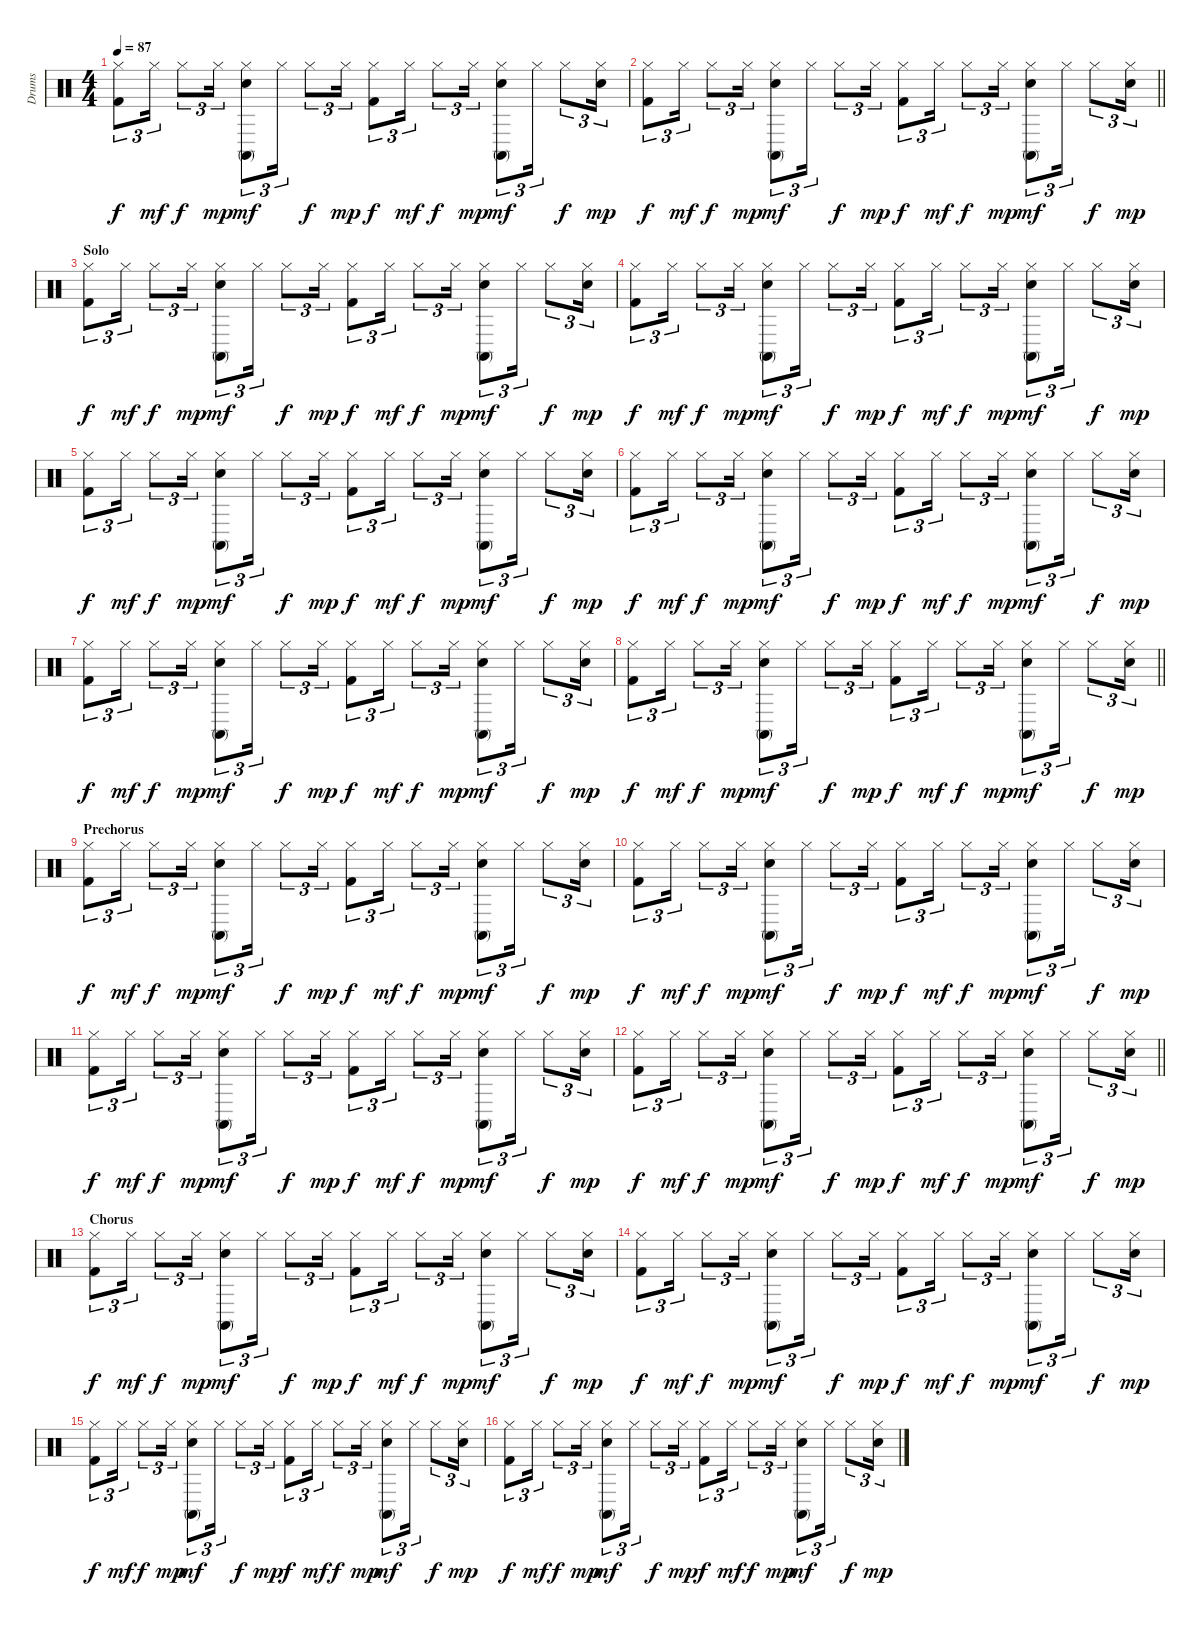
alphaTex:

\track ("Drums" "Drums") {instrument percussion}
\staff {score}
\articulation defaults
\ts (4 4)
\tempo 87
\clef neutral
\ks c
("Hi-Hat (closed)" "Kick (hit) 2").8{tu (3 2) dy f} "Hi-Hat (closed)".16{tu (3 2) dy mf} "Hi-Hat (closed)".8{tu (3 2) dy f} "Hi-Hat (closed)".16{tu (3 2) dy mp} ("Conga high (mute)" "Hi-Hat (closed)" "Electric Snare (hit)").8{tu (3 2) dy mf} "Hi-Hat (closed)".16{tu (3 2)} "Hi-Hat (closed)".8{tu (3 2) dy f} "Hi-Hat (closed)".16{tu (3 2) dy mp} ("Hi-Hat (closed)" "Kick (hit) 2").8{tu (3 2) dy f} "Hi-Hat (closed)".16{tu (3 2) dy mf} "Hi-Hat (closed)".8{tu (3 2) dy f} "Hi-Hat (closed)".16{tu (3 2) dy mp} ("Conga high (mute)" "Hi-Hat (closed)" "Electric Snare (hit)").8{tu (3 2) dy mf} "Hi-Hat (closed)".16{tu (3 2)} "Hi-Hat (closed)".8{tu (3 2) dy f} ("Hi-Hat (closed)" "Electric Snare (hit)").16{tu (3 2) dy mp} |
\barLineRight lightlight
("Hi-Hat (closed)" "Kick (hit) 2").8{tu (3 2) dy f} "Hi-Hat (closed)".16{tu (3 2) dy mf} "Hi-Hat (closed)".8{tu (3 2) dy f} "Hi-Hat (closed)".16{tu (3 2) dy mp} ("Conga high (mute)" "Hi-Hat (closed)" "Electric Snare (hit)").8{tu (3 2) dy mf} "Hi-Hat (closed)".16{tu (3 2)} "Hi-Hat (closed)".8{tu (3 2) dy f} "Hi-Hat (closed)".16{tu (3 2) dy mp} ("Hi-Hat (closed)" "Kick (hit) 2").8{tu (3 2) dy f} "Hi-Hat (closed)".16{tu (3 2) dy mf} "Hi-Hat (closed)".8{tu (3 2) dy f} "Hi-Hat (closed)".16{tu (3 2) dy mp} ("Conga high (mute)" "Hi-Hat (closed)" "Electric Snare (hit)").8{tu (3 2) dy mf} "Hi-Hat (closed)".16{tu (3 2)} "Hi-Hat (closed)".8{tu (3 2) dy f} ("Hi-Hat (closed)" "Electric Snare (hit)").16{tu (3 2) dy mp} |
\section ("" "Solo")
("Hi-Hat (closed)" "Kick (hit) 2").8{tu (3 2) dy f} "Hi-Hat (closed)".16{tu (3 2) dy mf} "Hi-Hat (closed)".8{tu (3 2) dy f} "Hi-Hat (closed)".16{tu (3 2) dy mp} ("Conga high (mute)" "Hi-Hat (closed)" "Electric Snare (hit)").8{tu (3 2) dy mf} "Hi-Hat (closed)".16{tu (3 2)} "Hi-Hat (closed)".8{tu (3 2) dy f} "Hi-Hat (closed)".16{tu (3 2) dy mp} ("Hi-Hat (closed)" "Kick (hit) 2").8{tu (3 2) dy f} "Hi-Hat (closed)".16{tu (3 2) dy mf} "Hi-Hat (closed)".8{tu (3 2) dy f} "Hi-Hat (closed)".16{tu (3 2) dy mp} ("Conga high (mute)" "Hi-Hat (closed)" "Electric Snare (hit)").8{tu (3 2) dy mf} "Hi-Hat (closed)".16{tu (3 2)} "Hi-Hat (closed)".8{tu (3 2) dy f} ("Hi-Hat (closed)" "Electric Snare (hit)").16{tu (3 2) dy mp} |
("Hi-Hat (closed)" "Kick (hit) 2").8{tu (3 2) dy f} "Hi-Hat (closed)".16{tu (3 2) dy mf} "Hi-Hat (closed)".8{tu (3 2) dy f} "Hi-Hat (closed)".16{tu (3 2) dy mp} ("Conga high (mute)" "Hi-Hat (closed)" "Electric Snare (hit)").8{tu (3 2) dy mf} "Hi-Hat (closed)".16{tu (3 2)} "Hi-Hat (closed)".8{tu (3 2) dy f} "Hi-Hat (closed)".16{tu (3 2) dy mp} ("Hi-Hat (closed)" "Kick (hit) 2").8{tu (3 2) dy f} "Hi-Hat (closed)".16{tu (3 2) dy mf} "Hi-Hat (closed)".8{tu (3 2) dy f} "Hi-Hat (closed)".16{tu (3 2) dy mp} ("Conga high (mute)" "Hi-Hat (closed)" "Electric Snare (hit)").8{tu (3 2) dy mf} "Hi-Hat (closed)".16{tu (3 2)} "Hi-Hat (closed)".8{tu (3 2) dy f} ("Hi-Hat (closed)" "Electric Snare (hit)").16{tu (3 2) dy mp} |
("Hi-Hat (closed)" "Kick (hit) 2").8{tu (3 2) dy f} "Hi-Hat (closed)".16{tu (3 2) dy mf} "Hi-Hat (closed)".8{tu (3 2) dy f} "Hi-Hat (closed)".16{tu (3 2) dy mp} ("Conga high (mute)" "Hi-Hat (closed)" "Electric Snare (hit)").8{tu (3 2) dy mf} "Hi-Hat (closed)".16{tu (3 2)} "Hi-Hat (closed)".8{tu (3 2) dy f} "Hi-Hat (closed)".16{tu (3 2) dy mp} ("Hi-Hat (closed)" "Kick (hit) 2").8{tu (3 2) dy f} "Hi-Hat (closed)".16{tu (3 2) dy mf} "Hi-Hat (closed)".8{tu (3 2) dy f} "Hi-Hat (closed)".16{tu (3 2) dy mp} ("Conga high (mute)" "Hi-Hat (closed)" "Electric Snare (hit)").8{tu (3 2) dy mf} "Hi-Hat (closed)".16{tu (3 2)} "Hi-Hat (closed)".8{tu (3 2) dy f} ("Hi-Hat (closed)" "Electric Snare (hit)").16{tu (3 2) dy mp} |
("Hi-Hat (closed)" "Kick (hit) 2").8{tu (3 2) dy f} "Hi-Hat (closed)".16{tu (3 2) dy mf} "Hi-Hat (closed)".8{tu (3 2) dy f} "Hi-Hat (closed)".16{tu (3 2) dy mp} ("Conga high (mute)" "Hi-Hat (closed)" "Electric Snare (hit)").8{tu (3 2) dy mf} "Hi-Hat (closed)".16{tu (3 2)} "Hi-Hat (closed)".8{tu (3 2) dy f} "Hi-Hat (closed)".16{tu (3 2) dy mp} ("Hi-Hat (closed)" "Kick (hit) 2").8{tu (3 2) dy f} "Hi-Hat (closed)".16{tu (3 2) dy mf} "Hi-Hat (closed)".8{tu (3 2) dy f} "Hi-Hat (closed)".16{tu (3 2) dy mp} ("Conga high (mute)" "Hi-Hat (closed)" "Electric Snare (hit)").8{tu (3 2) dy mf} "Hi-Hat (closed)".16{tu (3 2)} "Hi-Hat (closed)".8{tu (3 2) dy f} ("Hi-Hat (closed)" "Electric Snare (hit)").16{tu (3 2) dy mp} |
("Hi-Hat (closed)" "Kick (hit) 2").8{tu (3 2) dy f} "Hi-Hat (closed)".16{tu (3 2) dy mf} "Hi-Hat (closed)".8{tu (3 2) dy f} "Hi-Hat (closed)".16{tu (3 2) dy mp} ("Conga high (mute)" "Hi-Hat (closed)" "Electric Snare (hit)").8{tu (3 2) dy mf} "Hi-Hat (closed)".16{tu (3 2)} "Hi-Hat (closed)".8{tu (3 2) dy f} "Hi-Hat (closed)".16{tu (3 2) dy mp} ("Hi-Hat (closed)" "Kick (hit) 2").8{tu (3 2) dy f} "Hi-Hat (closed)".16{tu (3 2) dy mf} "Hi-Hat (closed)".8{tu (3 2) dy f} "Hi-Hat (closed)".16{tu (3 2) dy mp} ("Conga high (mute)" "Hi-Hat (closed)" "Electric Snare (hit)").8{tu (3 2) dy mf} "Hi-Hat (closed)".16{tu (3 2)} "Hi-Hat (closed)".8{tu (3 2) dy f} ("Hi-Hat (closed)" "Electric Snare (hit)").16{tu (3 2) dy mp} |
\barLineRight lightlight
("Hi-Hat (closed)" "Kick (hit) 2").8{tu (3 2) dy f} "Hi-Hat (closed)".16{tu (3 2) dy mf} "Hi-Hat (closed)".8{tu (3 2) dy f} "Hi-Hat (closed)".16{tu (3 2) dy mp} ("Conga high (mute)" "Hi-Hat (closed)" "Electric Snare (hit)").8{tu (3 2) dy mf} "Hi-Hat (closed)".16{tu (3 2)} "Hi-Hat (closed)".8{tu (3 2) dy f} "Hi-Hat (closed)".16{tu (3 2) dy mp} ("Hi-Hat (closed)" "Kick (hit) 2").8{tu (3 2) dy f} "Hi-Hat (closed)".16{tu (3 2) dy mf} "Hi-Hat (closed)".8{tu (3 2) dy f} "Hi-Hat (closed)".16{tu (3 2) dy mp} ("Conga high (mute)" "Hi-Hat (closed)" "Electric Snare (hit)").8{tu (3 2) dy mf} "Hi-Hat (closed)".16{tu (3 2)} "Hi-Hat (closed)".8{tu (3 2) dy f} ("Hi-Hat (closed)" "Electric Snare (hit)").16{tu (3 2) dy mp} |
\section ("" "Prechorus")
("Hi-Hat (closed)" "Kick (hit) 2").8{tu (3 2) dy f} "Hi-Hat (closed)".16{tu (3 2) dy mf} "Hi-Hat (closed)".8{tu (3 2) dy f} "Hi-Hat (closed)".16{tu (3 2) dy mp} ("Conga high (mute)" "Hi-Hat (closed)" "Electric Snare (hit)").8{tu (3 2) dy mf} "Hi-Hat (closed)".16{tu (3 2)} "Hi-Hat (closed)".8{tu (3 2) dy f} "Hi-Hat (closed)".16{tu (3 2) dy mp} ("Hi-Hat (closed)" "Kick (hit) 2").8{tu (3 2) dy f} "Hi-Hat (closed)".16{tu (3 2) dy mf} "Hi-Hat (closed)".8{tu (3 2) dy f} "Hi-Hat (closed)".16{tu (3 2) dy mp} ("Conga high (mute)" "Hi-Hat (closed)" "Electric Snare (hit)").8{tu (3 2) dy mf} "Hi-Hat (closed)".16{tu (3 2)} "Hi-Hat (closed)".8{tu (3 2) dy f} ("Hi-Hat (closed)" "Electric Snare (hit)").16{tu (3 2) dy mp} |
("Hi-Hat (closed)" "Kick (hit) 2").8{tu (3 2) dy f} "Hi-Hat (closed)".16{tu (3 2) dy mf} "Hi-Hat (closed)".8{tu (3 2) dy f} "Hi-Hat (closed)".16{tu (3 2) dy mp} ("Conga high (mute)" "Hi-Hat (closed)" "Electric Snare (hit)").8{tu (3 2) dy mf} "Hi-Hat (closed)".16{tu (3 2)} "Hi-Hat (closed)".8{tu (3 2) dy f} "Hi-Hat (closed)".16{tu (3 2) dy mp} ("Hi-Hat (closed)" "Kick (hit) 2").8{tu (3 2) dy f} "Hi-Hat (closed)".16{tu (3 2) dy mf} "Hi-Hat (closed)".8{tu (3 2) dy f} "Hi-Hat (closed)".16{tu (3 2) dy mp} ("Conga high (mute)" "Hi-Hat (closed)" "Electric Snare (hit)").8{tu (3 2) dy mf} "Hi-Hat (closed)".16{tu (3 2)} "Hi-Hat (closed)".8{tu (3 2) dy f} ("Hi-Hat (closed)" "Electric Snare (hit)").16{tu (3 2) dy mp} |
("Hi-Hat (closed)" "Kick (hit) 2").8{tu (3 2) dy f} "Hi-Hat (closed)".16{tu (3 2) dy mf} "Hi-Hat (closed)".8{tu (3 2) dy f} "Hi-Hat (closed)".16{tu (3 2) dy mp} ("Conga high (mute)" "Hi-Hat (closed)" "Electric Snare (hit)").8{tu (3 2) dy mf} "Hi-Hat (closed)".16{tu (3 2)} "Hi-Hat (closed)".8{tu (3 2) dy f} "Hi-Hat (closed)".16{tu (3 2) dy mp} ("Hi-Hat (closed)" "Kick (hit) 2").8{tu (3 2) dy f} "Hi-Hat (closed)".16{tu (3 2) dy mf} "Hi-Hat (closed)".8{tu (3 2) dy f} "Hi-Hat (closed)".16{tu (3 2) dy mp} ("Conga high (mute)" "Hi-Hat (closed)" "Electric Snare (hit)").8{tu (3 2) dy mf} "Hi-Hat (closed)".16{tu (3 2)} "Hi-Hat (closed)".8{tu (3 2) dy f} ("Hi-Hat (closed)" "Electric Snare (hit)").16{tu (3 2) dy mp} |
\barLineRight lightlight
("Hi-Hat (closed)" "Kick (hit) 2").8{tu (3 2) dy f} "Hi-Hat (closed)".16{tu (3 2) dy mf} "Hi-Hat (closed)".8{tu (3 2) dy f} "Hi-Hat (closed)".16{tu (3 2) dy mp} ("Conga high (mute)" "Hi-Hat (closed)" "Electric Snare (hit)").8{tu (3 2) dy mf} "Hi-Hat (closed)".16{tu (3 2)} "Hi-Hat (closed)".8{tu (3 2) dy f} "Hi-Hat (closed)".16{tu (3 2) dy mp} ("Hi-Hat (closed)" "Kick (hit) 2").8{tu (3 2) dy f} "Hi-Hat (closed)".16{tu (3 2) dy mf} "Hi-Hat (closed)".8{tu (3 2) dy f} "Hi-Hat (closed)".16{tu (3 2) dy mp} ("Conga high (mute)" "Hi-Hat (closed)" "Electric Snare (hit)").8{tu (3 2) dy mf} "Hi-Hat (closed)".16{tu (3 2)} "Hi-Hat (closed)".8{tu (3 2) dy f} ("Hi-Hat (closed)" "Electric Snare (hit)").16{tu (3 2) dy mp} |
\section ("" "Chorus")
("Hi-Hat (closed)" "Kick (hit) 2").8{tu (3 2) dy f} "Hi-Hat (closed)".16{tu (3 2) dy mf} "Hi-Hat (closed)".8{tu (3 2) dy f} "Hi-Hat (closed)".16{tu (3 2) dy mp} ("Conga high (mute)" "Hi-Hat (closed)" "Electric Snare (hit)").8{tu (3 2) dy mf} "Hi-Hat (closed)".16{tu (3 2)} "Hi-Hat (closed)".8{tu (3 2) dy f} "Hi-Hat (closed)".16{tu (3 2) dy mp} ("Hi-Hat (closed)" "Kick (hit) 2").8{tu (3 2) dy f} "Hi-Hat (closed)".16{tu (3 2) dy mf} "Hi-Hat (closed)".8{tu (3 2) dy f} "Hi-Hat (closed)".16{tu (3 2) dy mp} ("Conga high (mute)" "Hi-Hat (closed)" "Electric Snare (hit)").8{tu (3 2) dy mf} "Hi-Hat (closed)".16{tu (3 2)} "Hi-Hat (closed)".8{tu (3 2) dy f} ("Hi-Hat (closed)" "Electric Snare (hit)").16{tu (3 2) dy mp} |
("Hi-Hat (closed)" "Kick (hit) 2").8{tu (3 2) dy f} "Hi-Hat (closed)".16{tu (3 2) dy mf} "Hi-Hat (closed)".8{tu (3 2) dy f} "Hi-Hat (closed)".16{tu (3 2) dy mp} ("Conga high (mute)" "Hi-Hat (closed)" "Electric Snare (hit)").8{tu (3 2) dy mf} "Hi-Hat (closed)".16{tu (3 2)} "Hi-Hat (closed)".8{tu (3 2) dy f} "Hi-Hat (closed)".16{tu (3 2) dy mp} ("Hi-Hat (closed)" "Kick (hit) 2").8{tu (3 2) dy f} "Hi-Hat (closed)".16{tu (3 2) dy mf} "Hi-Hat (closed)".8{tu (3 2) dy f} "Hi-Hat (closed)".16{tu (3 2) dy mp} ("Conga high (mute)" "Hi-Hat (closed)" "Electric Snare (hit)").8{tu (3 2) dy mf} "Hi-Hat (closed)".16{tu (3 2)} "Hi-Hat (closed)".8{tu (3 2) dy f} ("Hi-Hat (closed)" "Electric Snare (hit)").16{tu (3 2) dy mp} |
("Hi-Hat (closed)" "Kick (hit) 2").8{tu (3 2) dy f} "Hi-Hat (closed)".16{tu (3 2) dy mf} "Hi-Hat (closed)".8{tu (3 2) dy f} "Hi-Hat (closed)".16{tu (3 2) dy mp} ("Conga high (mute)" "Hi-Hat (closed)" "Electric Snare (hit)").8{tu (3 2) dy mf} "Hi-Hat (closed)".16{tu (3 2)} "Hi-Hat (closed)".8{tu (3 2) dy f} "Hi-Hat (closed)".16{tu (3 2) dy mp} ("Hi-Hat (closed)" "Kick (hit) 2").8{tu (3 2) dy f} "Hi-Hat (closed)".16{tu (3 2) dy mf} "Hi-Hat (closed)".8{tu (3 2) dy f} "Hi-Hat (closed)".16{tu (3 2) dy mp} ("Conga high (mute)" "Hi-Hat (closed)" "Electric Snare (hit)").8{tu (3 2) dy mf} "Hi-Hat (closed)".16{tu (3 2)} "Hi-Hat (closed)".8{tu (3 2) dy f} ("Hi-Hat (closed)" "Electric Snare (hit)").16{tu (3 2) dy mp} |
("Hi-Hat (closed)" "Kick (hit) 2").8{tu (3 2) dy f} "Hi-Hat (closed)".16{tu (3 2) dy mf} "Hi-Hat (closed)".8{tu (3 2) dy f} "Hi-Hat (closed)".16{tu (3 2) dy mp} ("Conga high (mute)" "Hi-Hat (closed)" "Electric Snare (hit)").8{tu (3 2) dy mf} "Hi-Hat (closed)".16{tu (3 2)} "Hi-Hat (closed)".8{tu (3 2) dy f} "Hi-Hat (closed)".16{tu (3 2) dy mp} ("Hi-Hat (closed)" "Kick (hit) 2").8{tu (3 2) dy f} "Hi-Hat (closed)".16{tu (3 2) dy mf} "Hi-Hat (closed)".8{tu (3 2) dy f} "Hi-Hat (closed)".16{tu (3 2) dy mp} ("Conga high (mute)" "Hi-Hat (closed)" "Electric Snare (hit)").8{tu (3 2) dy mf} "Hi-Hat (closed)".16{tu (3 2)} "Hi-Hat (closed)".8{tu (3 2) dy f} ("Hi-Hat (closed)" "Electric Snare (hit)").16{tu (3 2) dy mp}
